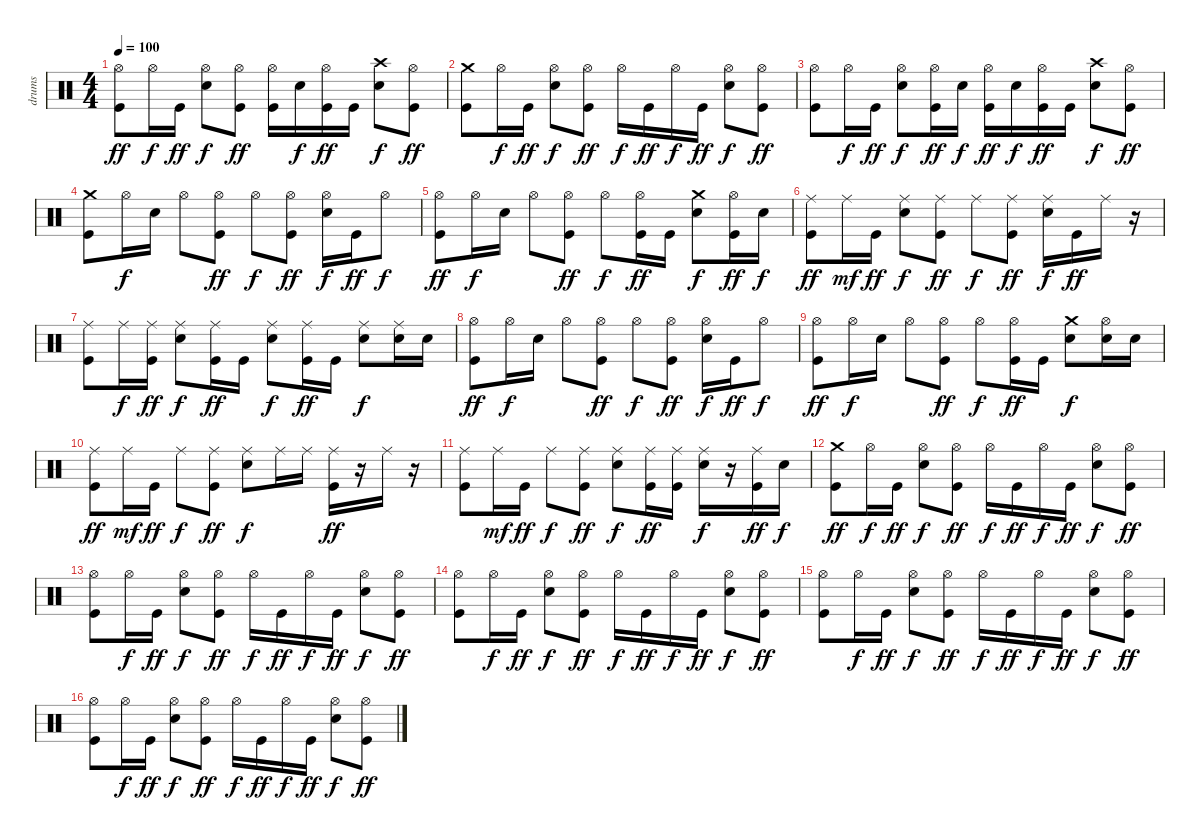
\track ("drums" "drums") {instrument percussion}
\staff {score}
\articulation defaults
\ts (4 4)
\tempo 100
\clef neutral
\ks c
("Hi-Hat (open)" "Kick (hit)").8{dy ff} "Hi-Hat (open)".16{dy f} "Kick (hit)".16{dy ff} ("Hi-Hat (open)" "Snare (hit) 2").8{dy f} ("Hi-Hat (open)" "Kick (hit)").8{dy ff} ("Hi-Hat (open)" "Kick (hit)").16 "Snare (hit) 2".16{dy f} ("Hi-Hat (open)" "Kick (hit)").16{dy ff} "Kick (hit)".16 ("Crash high (hit)" "Snare (hit) 2").8{dy f} ("Hi-Hat (open)" "Kick (hit)").8{dy ff} |
("Crash medium (hit)" "Kick (hit)").8 "Hi-Hat (open)".16{dy f} "Kick (hit)".16{dy ff} ("Hi-Hat (open)" "Snare (hit) 2").8{dy f} ("Hi-Hat (open)" "Kick (hit)").8{dy ff} "Hi-Hat (open)".16{dy f} "Kick (hit)".16{dy ff} "Hi-Hat (open)".16{dy f} "Kick (hit)".16{dy ff} ("Hi-Hat (open)" "Snare (hit) 2").8{dy f} ("Hi-Hat (open)" "Kick (hit)").8{dy ff} |
("Hi-Hat (open)" "Kick (hit)").8 "Hi-Hat (open)".16{dy f} "Kick (hit)".16{dy ff} ("Hi-Hat (open)" "Snare (hit) 2").8{dy f} ("Hi-Hat (open)" "Kick (hit)").16{dy ff} "Snare (hit) 2".16{dy f} ("Hi-Hat (open)" "Kick (hit)").16{dy ff} "Snare (hit) 2".16{dy f} ("Hi-Hat (open)" "Kick (hit)").16{dy ff} "Kick (hit)".16 ("Crash high (hit)" "Snare (hit) 2").8{dy f} ("Hi-Hat (open)" "Kick (hit)").8{dy ff} |
("Crash medium (hit)" "Kick (hit)").8 "Hi-Hat (open)".16{dy f} "Snare (hit) 2".16 "Hi-Hat (open)".8 ("Hi-Hat (open)" "Kick (hit)").8{dy ff} "Hi-Hat (open)".8{dy f} ("Hi-Hat (open)" "Kick (hit)").8{dy ff} ("Hi-Hat (open)" "Snare (hit) 2").16{dy f} "Kick (hit)".16{dy ff} "Hi-Hat (open)".8{dy f} |
("Hi-Hat (open)" "Kick (hit)").8{dy ff} "Hi-Hat (open)".16{dy f} "Snare (hit) 2".16 "Hi-Hat (open)".8 ("Hi-Hat (open)" "Kick (hit)").8{dy ff} "Hi-Hat (open)".8{dy f} ("Hi-Hat (open)" "Kick (hit)").16{dy ff} "Kick (hit)".16 ("Crash medium (hit)" "Snare (hit) 2").8{dy f} ("Hi-Hat (open)" "Kick (hit)").16{dy ff} "Snare (hit) 2".16{dy f} |
("Ride (middle)" "Kick (hit)").8{dy ff} "Ride (middle)".16{dy mf} "Kick (hit)".16{dy ff} ("Ride (middle)" "Snare (hit) 2").8{dy f} ("Ride (middle)" "Kick (hit)").8{dy ff} "Ride (middle)".8{dy f} ("Ride (middle)" "Kick (hit)").8{dy ff} ("Ride (middle)" "Snare (hit) 2").16{dy f} "Kick (hit)".16{dy ff} "Ride (middle)".16 r.16 |
("Ride (middle)" "Kick (hit)").8 "Ride (middle)".16{dy f} ("Ride (middle)" "Kick (hit)").16{dy ff} ("Ride (middle)" "Snare (hit) 2").8{dy f} ("Ride (middle)" "Kick (hit)").16{dy ff} "Kick (hit)".16 ("Ride (middle)" "Snare (hit) 2").8{dy f} ("Ride (middle)" "Kick (hit)").16{dy ff} "Kick (hit)".16 ("Ride (middle)" "Snare (hit) 2").8{dy f} ("Ride (middle)" "Snare (hit) 2").16 "Snare (hit) 2".16 |
("Hi-Hat (open)" "Kick (hit)").8{dy ff} "Hi-Hat (open)".16{dy f} "Snare (hit) 2".16 "Hi-Hat (open)".8 ("Hi-Hat (open)" "Kick (hit)").8{dy ff} "Hi-Hat (open)".8{dy f} ("Hi-Hat (open)" "Kick (hit)").8{dy ff} ("Hi-Hat (open)" "Snare (hit) 2").16{dy f} "Kick (hit)".16{dy ff} "Hi-Hat (open)".8{dy f} |
("Hi-Hat (open)" "Kick (hit)").8{dy ff} "Hi-Hat (open)".16{dy f} "Snare (hit) 2".16 "Hi-Hat (open)".8 ("Hi-Hat (open)" "Kick (hit)").8{dy ff} "Hi-Hat (open)".8{dy f} ("Hi-Hat (open)" "Kick (hit)").16{dy ff} "Kick (hit)".16 ("Crash medium (hit)" "Snare (hit) 2").8{dy f} ("Hi-Hat (open)" "Snare (hit) 2").16 "Snare (hit) 2".16 |
("Ride (middle)" "Kick (hit)").8{dy ff} "Ride (middle)".16{dy mf} "Kick (hit)".16{dy ff} "Ride (middle)".8{dy f} ("Ride (middle)" "Kick (hit)").8{dy ff} ("Ride (middle)" "Snare (hit) 2").8{dy f} "Ride (middle)".16 "Ride (middle)".16 ("Ride (middle)" "Kick (hit)").16{dy ff} r.16 "Ride (middle)".16 r.16 |
("Ride (middle)" "Kick (hit)").8 "Ride (middle)".16{dy mf} "Kick (hit)".16{dy ff} "Ride (middle)".8{dy f} ("Ride (middle)" "Kick (hit)").8{dy ff} ("Ride (middle)" "Snare (hit) 2").8{dy f} ("Ride (middle)" "Kick (hit)").16{dy ff} ("Ride (middle)" "Kick (hit)").16 ("Ride (middle)" "Snare (hit) 2").16{dy f} r.16 ("Ride (middle)" "Kick (hit)").16{dy ff} "Snare (hit) 2".16{dy f} |
("Crash medium (hit)" "Kick (hit)").8{dy ff} "Hi-Hat (open)".16{dy f} "Kick (hit)".16{dy ff} ("Hi-Hat (open)" "Snare (hit) 2").8{dy f} ("Hi-Hat (open)" "Kick (hit)").8{dy ff} "Hi-Hat (open)".16{dy f} "Kick (hit)".16{dy ff} "Hi-Hat (open)".16{dy f} "Kick (hit)".16{dy ff} ("Hi-Hat (open)" "Snare (hit) 2").8{dy f} ("Hi-Hat (open)" "Kick (hit)").8{dy ff} |
("Hi-Hat (open)" "Kick (hit)").8 "Hi-Hat (open)".16{dy f} "Kick (hit)".16{dy ff} ("Hi-Hat (open)" "Snare (hit) 2").8{dy f} ("Hi-Hat (open)" "Kick (hit)").8{dy ff} "Hi-Hat (open)".16{dy f} "Kick (hit)".16{dy ff} "Hi-Hat (open)".16{dy f} "Kick (hit)".16{dy ff} ("Hi-Hat (open)" "Snare (hit) 2").8{dy f} ("Hi-Hat (open)" "Kick (hit)").8{dy ff} |
("Hi-Hat (open)" "Kick (hit)").8 "Hi-Hat (open)".16{dy f} "Kick (hit)".16{dy ff} ("Hi-Hat (open)" "Snare (hit) 2").8{dy f} ("Hi-Hat (open)" "Kick (hit)").8{dy ff} "Hi-Hat (open)".16{dy f} "Kick (hit)".16{dy ff} "Hi-Hat (open)".16{dy f} "Kick (hit)".16{dy ff} ("Hi-Hat (open)" "Snare (hit) 2").8{dy f} ("Hi-Hat (open)" "Kick (hit)").8{dy ff} |
("Hi-Hat (open)" "Kick (hit)").8 "Hi-Hat (open)".16{dy f} "Kick (hit)".16{dy ff} ("Hi-Hat (open)" "Snare (hit) 2").8{dy f} ("Hi-Hat (open)" "Kick (hit)").8{dy ff} "Hi-Hat (open)".16{dy f} "Kick (hit)".16{dy ff} "Hi-Hat (open)".16{dy f} "Kick (hit)".16{dy ff} ("Hi-Hat (open)" "Snare (hit) 2").8{dy f} ("Hi-Hat (open)" "Kick (hit)").8{dy ff} |
("Hi-Hat (open)" "Kick (hit)").8 "Hi-Hat (open)".16{dy f} "Kick (hit)".16{dy ff} ("Hi-Hat (open)" "Snare (hit) 2").8{dy f} ("Hi-Hat (open)" "Kick (hit)").8{dy ff} "Hi-Hat (open)".16{dy f} "Kick (hit)".16{dy ff} "Hi-Hat (open)".16{dy f} "Kick (hit)".16{dy ff} ("Hi-Hat (open)" "Snare (hit) 2").8{dy f} ("Hi-Hat (open)" "Kick (hit)").8{dy ff}
